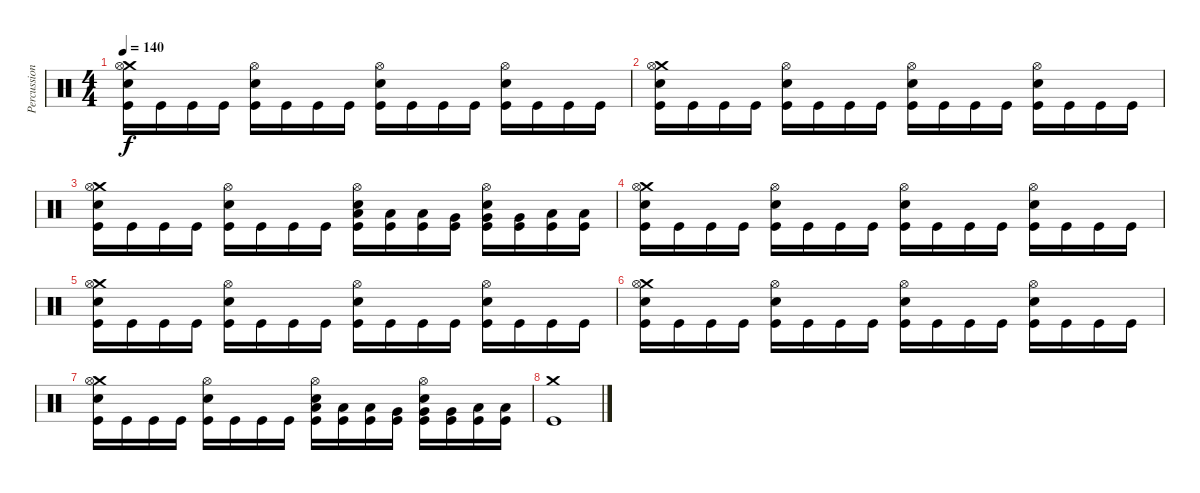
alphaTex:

\track ("Percussion" "Percussion") {instrument percussion}
\staff {score}
\articulation defaults
\ts (4 4)
\tempo 140
\clef neutral
\ks c
("Crash medium (hit)" "Hi-Hat (open)" "Electric Snare (hit)" "Kick (hit)").16{dy f} "Kick (hit)".16 "Kick (hit)".16 "Kick (hit)".16 ("Hi-Hat (open)" "Electric Snare (hit)" "Kick (hit)").16 "Kick (hit)".16 "Kick (hit)".16 "Kick (hit)".16 ("Hi-Hat (open)" "Electric Snare (hit)" "Kick (hit)").16 "Kick (hit)".16 "Kick (hit)".16 "Kick (hit)".16 ("Hi-Hat (open)" "Electric Snare (hit)" "Kick (hit)").16 "Kick (hit)".16 "Kick (hit)".16 "Kick (hit)".16 |
("Crash medium (hit)" "Hi-Hat (open)" "Electric Snare (hit)" "Kick (hit)").16 "Kick (hit)".16 "Kick (hit)".16 "Kick (hit)".16 ("Hi-Hat (open)" "Electric Snare (hit)" "Kick (hit)").16 "Kick (hit)".16 "Kick (hit)".16 "Kick (hit)".16 ("Hi-Hat (open)" "Electric Snare (hit)" "Kick (hit)").16 "Kick (hit)".16 "Kick (hit)".16 "Kick (hit)".16 ("Hi-Hat (open)" "Electric Snare (hit)" "Kick (hit)").16 "Kick (hit)".16 "Kick (hit)".16 "Kick (hit)".16 |
("Crash medium (hit)" "Hi-Hat (open)" "Electric Snare (hit)" "Kick (hit)").16 "Kick (hit)".16 "Kick (hit)".16 "Kick (hit)".16 ("Hi-Hat (open)" "Electric Snare (hit)" "Kick (hit)").16 "Kick (hit)".16 "Kick (hit)".16 "Kick (hit)".16 ("Low Tom (hit)" "Hi-Hat (open)" "Electric Snare (hit)" "Kick (hit)").16 ("Low Tom (hit)" "Kick (hit)").16 ("Low Tom (hit)" "Kick (hit)").16 ("Very Low Tom (hit)" "Kick (hit)").16 ("Very Low Tom (hit)" "Hi-Hat (open)" "Electric Snare (hit)" "Kick (hit)").16 ("Very Low Tom (hit)" "Kick (hit)").16 ("Low Floor Tom (hit)" "Kick (hit)").16 ("Low Floor Tom (hit)" "Kick (hit)").16 |
("Crash medium (hit)" "Hi-Hat (open)" "Electric Snare (hit)" "Kick (hit)").16 "Kick (hit)".16 "Kick (hit)".16 "Kick (hit)".16 ("Hi-Hat (open)" "Electric Snare (hit)" "Kick (hit)").16 "Kick (hit)".16 "Kick (hit)".16 "Kick (hit)".16 ("Hi-Hat (open)" "Electric Snare (hit)" "Kick (hit)").16 "Kick (hit)".16 "Kick (hit)".16 "Kick (hit)".16 ("Hi-Hat (open)" "Electric Snare (hit)" "Kick (hit)").16 "Kick (hit)".16 "Kick (hit)".16 "Kick (hit)".16 |
("Crash medium (hit)" "Hi-Hat (open)" "Electric Snare (hit)" "Kick (hit)").16 "Kick (hit)".16 "Kick (hit)".16 "Kick (hit)".16 ("Hi-Hat (open)" "Electric Snare (hit)" "Kick (hit)").16 "Kick (hit)".16 "Kick (hit)".16 "Kick (hit)".16 ("Hi-Hat (open)" "Electric Snare (hit)" "Kick (hit)").16 "Kick (hit)".16 "Kick (hit)".16 "Kick (hit)".16 ("Hi-Hat (open)" "Electric Snare (hit)" "Kick (hit)").16 "Kick (hit)".16 "Kick (hit)".16 "Kick (hit)".16 |
("Crash medium (hit)" "Hi-Hat (open)" "Electric Snare (hit)" "Kick (hit)").16 "Kick (hit)".16 "Kick (hit)".16 "Kick (hit)".16 ("Hi-Hat (open)" "Electric Snare (hit)" "Kick (hit)").16 "Kick (hit)".16 "Kick (hit)".16 "Kick (hit)".16 ("Hi-Hat (open)" "Electric Snare (hit)" "Kick (hit)").16 "Kick (hit)".16 "Kick (hit)".16 "Kick (hit)".16 ("Hi-Hat (open)" "Electric Snare (hit)" "Kick (hit)").16 "Kick (hit)".16 "Kick (hit)".16 "Kick (hit)".16 |
("Crash medium (hit)" "Hi-Hat (open)" "Electric Snare (hit)" "Kick (hit)").16 "Kick (hit)".16 "Kick (hit)".16 "Kick (hit)".16 ("Hi-Hat (open)" "Electric Snare (hit)" "Kick (hit)").16 "Kick (hit)".16 "Kick (hit)".16 "Kick (hit)".16 ("Low Tom (hit)" "Hi-Hat (open)" "Electric Snare (hit)" "Kick (hit)").16 ("Low Tom (hit)" "Kick (hit)").16 ("Low Tom (hit)" "Kick (hit)").16 ("Very Low Tom (hit)" "Kick (hit)").16 ("Very Low Tom (hit)" "Hi-Hat (open)" "Electric Snare (hit)" "Kick (hit)").16 ("Very Low Tom (hit)" "Kick (hit)").16 ("Low Floor Tom (hit)" "Kick (hit)").16 ("Low Floor Tom (hit)" "Kick (hit)").16 |
("Crash medium (hit)" "Kick (hit)").1
